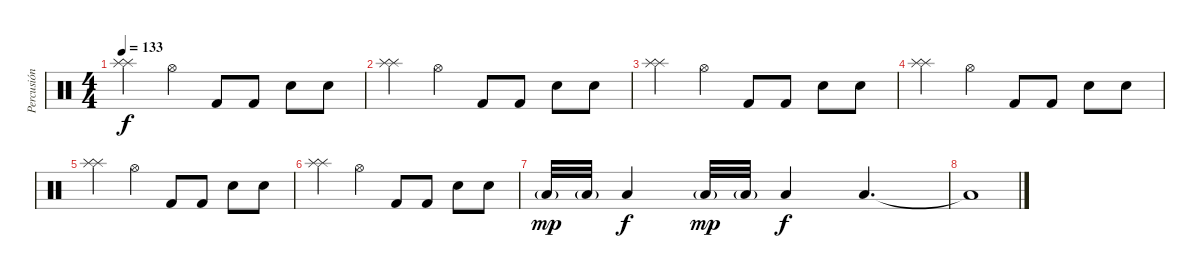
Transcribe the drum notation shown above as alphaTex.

\track ("Percusión" "Percusión") {instrument percussion}
\staff {score}
\articulation defaults
\ts (4 4)
\tempo 133
\clef neutral
\ks c
("Splash (hit)" "Splash (hit)").4{dy f} "Hi-Hat (open)".4 "Kick (hit) 2".8 "Kick (hit) 2".8 "Hand Clap (hit)".8 "Hand Clap (hit)".8 |
("Splash (hit)" "Splash (hit)").4 "Hi-Hat (open)".4 "Kick (hit) 2".8 "Kick (hit) 2".8 "Hand Clap (hit)".8 "Hand Clap (hit)".8 |
("Splash (hit)" "Splash (hit)").4 "Hi-Hat (open)".4 "Kick (hit) 2".8 "Kick (hit) 2".8 "Hand Clap (hit)".8 "Hand Clap (hit)".8 |
("Splash (hit)" "Splash (hit)").4 "Hi-Hat (open)".4 "Kick (hit) 2".8 "Kick (hit) 2".8 "Hand Clap (hit)".8 "Hand Clap (hit)".8 |
("Splash (hit)" "Splash (hit)").4 "Hi-Hat (open)".4 "Kick (hit) 2".8 "Kick (hit) 2".8 "Hand Clap (hit)".8 "Hand Clap (hit)".8 |
("Splash (hit)" "Splash (hit)").4 "Hi-Hat (open)".4 "Kick (hit) 2".8 "Kick (hit) 2".8 "Hand Clap (hit)".8 "Hand Clap (hit)".8 |
"Low Tom (hit)"{g}.32{dy mp} "Low Tom (hit)"{g}.32 "Low Tom (hit)".4{dy f} "Low Tom (hit)"{g}.32{dy mp} "Low Tom (hit)"{g}.32 "Low Tom (hit)".4{dy f} "Low Tom (hit)".4{d} |
"Low Tom (hit)"{t}.1
